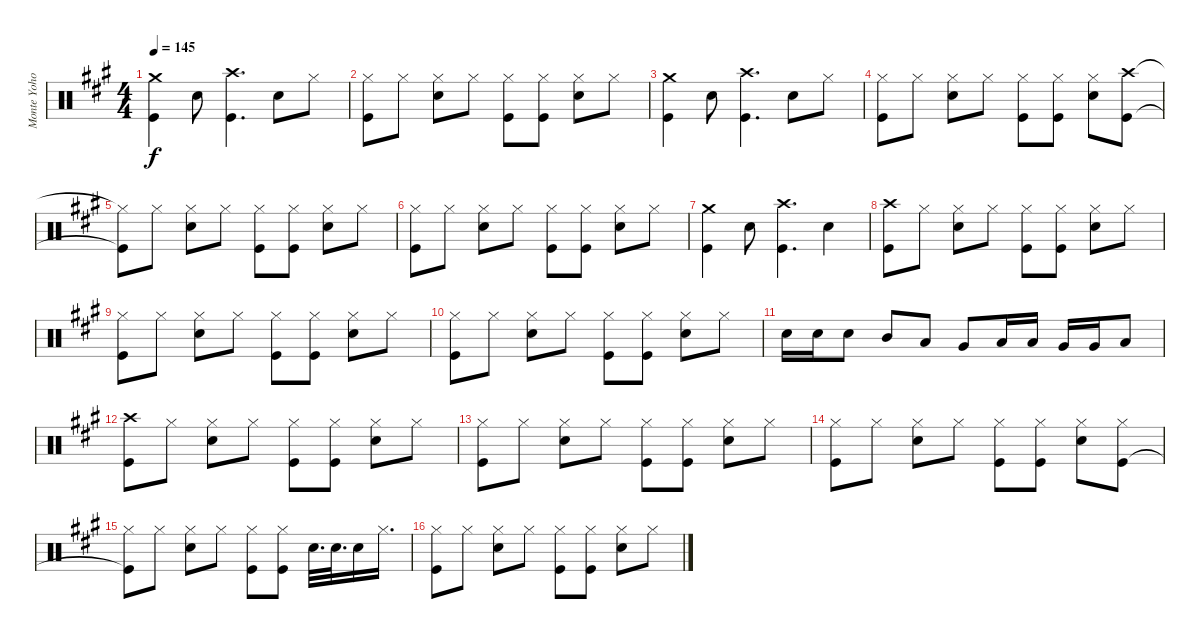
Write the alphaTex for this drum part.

\track ("Monte Yoho Drums" "Monte Yoho") {instrument percussion}
\staff {score}
\articulation defaults
\ts (4 4)
\tempo 145
\clef neutral
\ks a
("Crash medium (hit)" "Kick (hit)").4{dy f} "Snare (hit) 2".8 ("Crash high (hit)" "Kick (hit)").4{d} "Snare (hit) 2".8 "Hi-Hat (closed)".8 |
("Hi-Hat (closed)" "Kick (hit)").8 "Hi-Hat (closed)".8 ("Hi-Hat (closed)" "Snare (hit) 2").8 "Hi-Hat (closed)".8 ("Hi-Hat (closed)" "Kick (hit)").8 ("Hi-Hat (closed)" "Kick (hit)").8 ("Hi-Hat (closed)" "Snare (hit) 2").8 "Hi-Hat (closed)".8 |
("Crash medium (hit)" "Kick (hit)").4 "Snare (hit) 2".8 ("Crash high (hit)" "Kick (hit)").4{d} "Snare (hit) 2".8 "Hi-Hat (closed)".8 |
("Hi-Hat (closed)" "Kick (hit)").8 "Hi-Hat (closed)".8 ("Hi-Hat (closed)" "Snare (hit) 2").8 "Hi-Hat (closed)".8 ("Hi-Hat (closed)" "Kick (hit)").8 ("Hi-Hat (closed)" "Kick (hit)").8 ("Hi-Hat (closed)" "Snare (hit) 2").8 ("Crash high (hit)" "Kick (hit)").8 |
("Hi-Hat (closed)"{t} "Kick (hit)"{t}).8 "Hi-Hat (closed)".8 ("Hi-Hat (closed)" "Snare (hit) 2").8 "Hi-Hat (closed)".8 ("Hi-Hat (closed)" "Kick (hit)").8 ("Hi-Hat (closed)" "Kick (hit)").8 ("Hi-Hat (closed)" "Snare (hit) 2").8 "Hi-Hat (closed)".8 |
("Hi-Hat (closed)" "Kick (hit)").8 "Hi-Hat (closed)".8 ("Hi-Hat (closed)" "Snare (hit) 2").8 "Hi-Hat (closed)".8 ("Hi-Hat (closed)" "Kick (hit)").8 ("Hi-Hat (closed)" "Kick (hit)").8 ("Hi-Hat (closed)" "Snare (hit) 2").8 "Hi-Hat (closed)".8 |
("Crash medium (hit)" "Kick (hit)").4 "Snare (hit) 2".8 ("Crash high (hit)" "Kick (hit)").4{d} "Snare (hit) 2".4 |
("Crash high (hit)" "Kick (hit)").8 "Hi-Hat (closed)".8 ("Hi-Hat (closed)" "Snare (hit) 2").8 "Hi-Hat (closed)".8 ("Hi-Hat (closed)" "Kick (hit)").8 ("Hi-Hat (closed)" "Kick (hit)").8 ("Hi-Hat (closed)" "Snare (hit) 2").8 "Hi-Hat (closed)".8 |
("Hi-Hat (closed)" "Kick (hit)").8 "Hi-Hat (closed)".8 ("Hi-Hat (closed)" "Snare (hit) 2").8 "Hi-Hat (closed)".8 ("Hi-Hat (closed)" "Kick (hit)").8 ("Hi-Hat (closed)" "Kick (hit)").8 ("Hi-Hat (closed)" "Snare (hit) 2").8 "Hi-Hat (closed)".8 |
("Hi-Hat (closed)" "Kick (hit)").8 "Hi-Hat (closed)".8 ("Hi-Hat (closed)" "Snare (hit) 2").8 "Hi-Hat (closed)".8 ("Hi-Hat (closed)" "Kick (hit)").8 ("Hi-Hat (closed)" "Kick (hit)").8 ("Hi-Hat (closed)" "Snare (hit) 2").8 "Hi-Hat (closed)".8 |
"Snare (hit) 2".16 "Snare (hit) 2".16 "Snare (hit) 2".8 "Mid Tom (hit)".8 "Low Tom (hit)".8 "Very Low Tom (hit)".8 "Low Tom (hit)".16 "Low Tom (hit)".16 "Very Low Tom (hit)".16 "Very Low Tom (hit)".16 "Low Floor Tom (hit)".8 |
("Crash high (hit)" "Kick (hit)").8 "Hi-Hat (closed)".8 ("Hi-Hat (closed)" "Snare (hit) 2").8 "Hi-Hat (closed)".8 ("Hi-Hat (closed)" "Kick (hit)").8 ("Hi-Hat (closed)" "Kick (hit)").8 ("Hi-Hat (closed)" "Snare (hit) 2").8 "Hi-Hat (closed)".8 |
("Hi-Hat (closed)" "Kick (hit)").8 "Hi-Hat (closed)".8 ("Hi-Hat (closed)" "Snare (hit) 2").8 "Hi-Hat (closed)".8 ("Hi-Hat (closed)" "Kick (hit)").8 ("Hi-Hat (closed)" "Kick (hit)").8 ("Hi-Hat (closed)" "Snare (hit) 2").8 "Hi-Hat (closed)".8 |
("Hi-Hat (closed)" "Kick (hit)").8 "Hi-Hat (closed)".8 ("Hi-Hat (closed)" "Snare (hit) 2").8 "Hi-Hat (closed)".8 ("Hi-Hat (closed)" "Kick (hit)").8 ("Hi-Hat (closed)" "Kick (hit)").8 ("Hi-Hat (closed)" "Snare (hit) 2").8 ("Hi-Hat (closed)" "Kick (hit)").8 |
("Hi-Hat (closed)" "Kick (hit)"{t}).8 "Hi-Hat (closed)".8 ("Hi-Hat (closed)" "Snare (hit) 2").8 "Hi-Hat (closed)".8 ("Hi-Hat (closed)" "Kick (hit)").8 ("Hi-Hat (closed)" "Kick (hit)").8 "Snare (hit) 2".32{d} "Snare (hit) 2".32{d} "Snare (hit) 2".16 "Hi-Hat (closed)".16{d} |
("Hi-Hat (closed)" "Kick (hit)").8 "Hi-Hat (closed)".8 ("Hi-Hat (closed)" "Snare (hit) 2").8 "Hi-Hat (closed)".8 ("Hi-Hat (closed)" "Kick (hit)").8 ("Hi-Hat (closed)" "Kick (hit)").8 ("Hi-Hat (closed)" "Snare (hit) 2").8 "Hi-Hat (closed)".8
